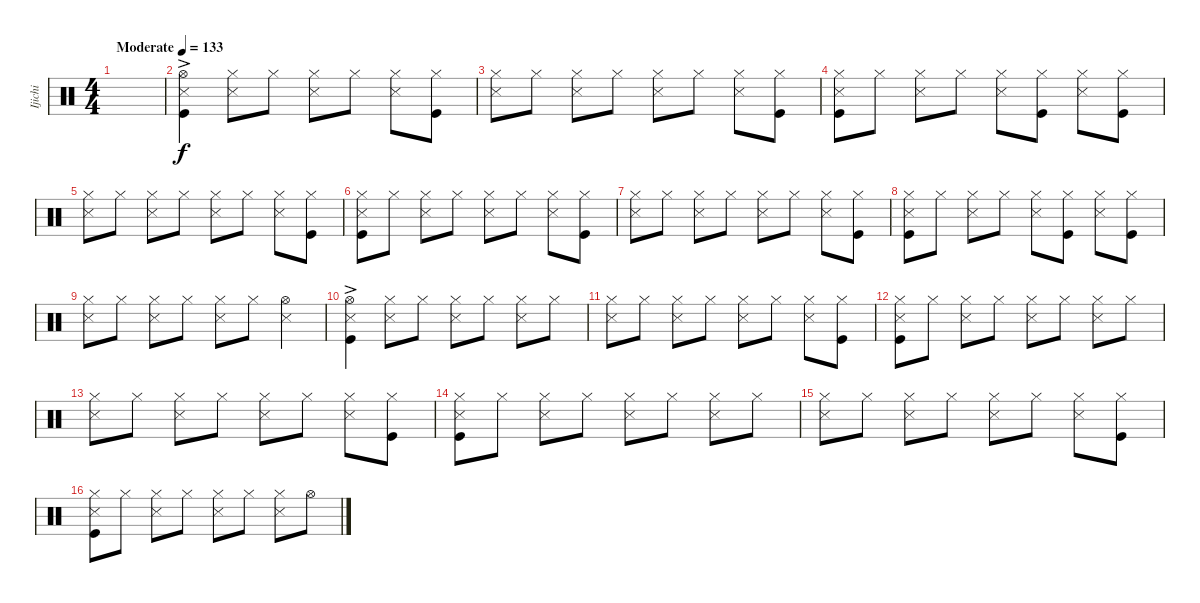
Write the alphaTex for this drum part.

\track ("Ijichi" "Ijichi") {instrument percussion}
\staff {score}
\articulation defaults
\ts (4 4)
\tempo (133 "Moderate")
\clef neutral
\ks c
|
("Hi-Hat (open)"{ac} "Snare (side stick) 3" "Kick (hit)").4 ("Hi-Hat (closed)" "Snare (side stick) 3").8 "Hi-Hat (closed)".8 ("Hi-Hat (closed)" "Snare (side stick) 3").8 "Hi-Hat (closed)".8 ("Hi-Hat (closed)" "Snare (side stick) 3").8 ("Hi-Hat (closed)" "Kick (hit)").8 |
("Hi-Hat (closed)" "Snare (side stick) 3").8 "Hi-Hat (closed)".8 ("Hi-Hat (closed)" "Snare (side stick) 3").8 "Hi-Hat (closed)".8 ("Hi-Hat (closed)" "Snare (side stick) 3").8 "Hi-Hat (closed)".8 ("Hi-Hat (closed)" "Snare (side stick) 3").8 ("Hi-Hat (closed)" "Kick (hit)").8 |
("Hi-Hat (closed)" "Snare (side stick) 3" "Kick (hit)").8 "Hi-Hat (closed)".8 ("Hi-Hat (closed)" "Snare (side stick) 3").8 "Hi-Hat (closed)".8 ("Hi-Hat (closed)" "Snare (side stick) 3").8 ("Hi-Hat (closed)" "Kick (hit)").8 ("Hi-Hat (closed)" "Snare (side stick) 3").8 ("Hi-Hat (closed)" "Kick (hit)").8 |
("Hi-Hat (closed)" "Snare (side stick) 3").8 "Hi-Hat (closed)".8 ("Hi-Hat (closed)" "Snare (side stick) 3").8 "Hi-Hat (closed)".8 ("Hi-Hat (closed)" "Snare (side stick) 3").8 "Hi-Hat (closed)".8 ("Hi-Hat (closed)" "Snare (side stick) 3").8 ("Hi-Hat (closed)" "Kick (hit)").8 |
("Hi-Hat (closed)" "Snare (side stick) 3" "Kick (hit)").8 "Hi-Hat (closed)".8 ("Hi-Hat (closed)" "Snare (side stick) 3").8 "Hi-Hat (closed)".8 ("Hi-Hat (closed)" "Snare (side stick) 3").8 "Hi-Hat (closed)".8 ("Hi-Hat (closed)" "Snare (side stick) 3").8 ("Hi-Hat (closed)" "Kick (hit)").8 |
("Hi-Hat (closed)" "Snare (side stick) 3").8 "Hi-Hat (closed)".8 ("Hi-Hat (closed)" "Snare (side stick) 3").8 "Hi-Hat (closed)".8 ("Hi-Hat (closed)" "Snare (side stick) 3").8 "Hi-Hat (closed)".8 ("Hi-Hat (closed)" "Snare (side stick) 3").8 ("Hi-Hat (closed)" "Kick (hit)").8 |
("Hi-Hat (closed)" "Snare (side stick) 3" "Kick (hit)").8 "Hi-Hat (closed)".8 ("Hi-Hat (closed)" "Snare (side stick) 3").8 "Hi-Hat (closed)".8 ("Hi-Hat (closed)" "Snare (side stick) 3").8 ("Hi-Hat (closed)" "Kick (hit)").8 ("Hi-Hat (closed)" "Snare (side stick) 3").8 ("Hi-Hat (closed)" "Kick (hit)").8 |
("Hi-Hat (closed)" "Snare (side stick) 3").8 "Hi-Hat (closed)".8 ("Hi-Hat (closed)" "Snare (side stick) 3").8 "Hi-Hat (closed)".8 ("Hi-Hat (closed)" "Snare (side stick) 3").8 "Hi-Hat (closed)".8 ("Hi-Hat (open)" "Snare (side stick) 3").4 |
("Hi-Hat (open)"{ac} "Snare (side stick) 3" "Kick (hit)").4 ("Hi-Hat (closed)" "Snare (side stick) 3").8 "Hi-Hat (closed)".8 ("Hi-Hat (closed)" "Snare (side stick) 3").8 "Hi-Hat (closed)".8 ("Hi-Hat (closed)" "Snare (side stick) 3").8 "Hi-Hat (closed)".8 |
("Hi-Hat (closed)" "Snare (side stick) 3").8 "Hi-Hat (closed)".8 ("Hi-Hat (closed)" "Snare (side stick) 3").8 "Hi-Hat (closed)".8 ("Hi-Hat (closed)" "Snare (side stick) 3").8 "Hi-Hat (closed)".8 ("Hi-Hat (closed)" "Snare (side stick) 3").8 ("Hi-Hat (closed)" "Kick (hit)").8 |
("Hi-Hat (closed)" "Snare (side stick) 3" "Kick (hit)").8 "Hi-Hat (closed)".8 ("Hi-Hat (closed)" "Snare (side stick) 3").8 "Hi-Hat (closed)".8 ("Hi-Hat (closed)" "Snare (side stick) 3").8 "Hi-Hat (closed)".8 ("Hi-Hat (closed)" "Snare (side stick) 3").8 "Hi-Hat (closed)".8 |
("Hi-Hat (closed)" "Snare (side stick) 3").8 "Hi-Hat (closed)".8 ("Hi-Hat (closed)" "Snare (side stick) 3").8 "Hi-Hat (closed)".8 ("Hi-Hat (closed)" "Snare (side stick) 3").8 "Hi-Hat (closed)".8 ("Hi-Hat (closed)" "Snare (side stick) 3").8 ("Hi-Hat (closed)" "Kick (hit)").8 |
("Hi-Hat (closed)" "Snare (side stick) 3" "Kick (hit)").8 "Hi-Hat (closed)".8 ("Hi-Hat (closed)" "Snare (side stick) 3").8 "Hi-Hat (closed)".8 ("Hi-Hat (closed)" "Snare (side stick) 3").8 "Hi-Hat (closed)".8 ("Hi-Hat (closed)" "Snare (side stick) 3").8 "Hi-Hat (closed)".8 |
("Hi-Hat (closed)" "Snare (side stick) 3").8 "Hi-Hat (closed)".8 ("Hi-Hat (closed)" "Snare (side stick) 3").8 "Hi-Hat (closed)".8 ("Hi-Hat (closed)" "Snare (side stick) 3").8 "Hi-Hat (closed)".8 ("Hi-Hat (closed)" "Snare (side stick) 3").8 ("Hi-Hat (closed)" "Kick (hit)").8 |
("Hi-Hat (closed)" "Snare (side stick) 3" "Kick (hit)").8 "Hi-Hat (closed)".8 ("Hi-Hat (closed)" "Snare (side stick) 3").8 "Hi-Hat (closed)".8 ("Hi-Hat (closed)" "Snare (side stick) 3").8 "Hi-Hat (closed)".8 ("Hi-Hat (closed)" "Snare (side stick) 3").8 "Hi-Hat (open)".8
